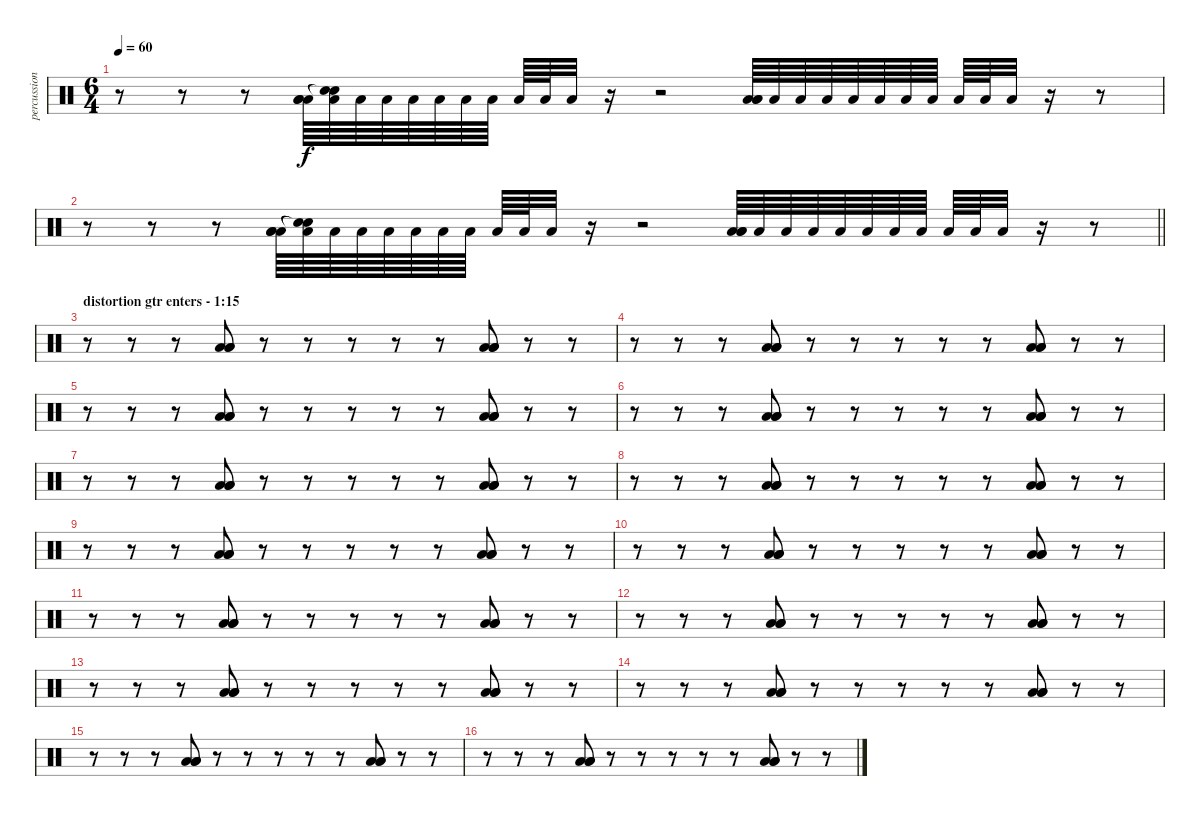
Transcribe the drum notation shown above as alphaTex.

\track ("percussion" "percussion") {instrument percussion}
\staff {score}
\articulation defaults
\ts (6 4)
\tempo 60
\clef neutral
\ks c
r.8{dy f} r.8 r.8 ("Low Floor Tom (hit)" "Low Floor Tom (hit)" "Low Floor Tom (hit)").64{volume 0} ("Snare (hit)"{t} "Snare (hit)"{t} "Low Floor Tom (hit)").64 "Low Floor Tom (hit)".64 "Low Floor Tom (hit)".64 "Low Floor Tom (hit)".64 "Low Floor Tom (hit)".64 "Low Floor Tom (hit)".64 "Low Floor Tom (hit)".64 "Low Floor Tom (hit)".64 "Low Floor Tom (hit)".64 "Low Floor Tom (hit)".32 r.16 r.2{volume 11} ("Low Floor Tom (hit)" "Low Floor Tom (hit)" "Low Floor Tom (hit)").64{volume 0} "Low Floor Tom (hit)".64 "Low Floor Tom (hit)".64 "Low Floor Tom (hit)".64 "Low Floor Tom (hit)".64 "Low Floor Tom (hit)".64 "Low Floor Tom (hit)".64 "Low Floor Tom (hit)".64 "Low Floor Tom (hit)".64 "Low Floor Tom (hit)".64 "Low Floor Tom (hit)".32 r.16 r.8{volume 11} |
\barLineRight lightlight
r.8 r.8 r.8 ("Low Floor Tom (hit)" "Low Floor Tom (hit)" "Low Floor Tom (hit)").64{volume 0} ("Snare (hit)"{t} "Snare (hit)"{t} "Low Floor Tom (hit)").64 "Low Floor Tom (hit)".64 "Low Floor Tom (hit)".64 "Low Floor Tom (hit)".64 "Low Floor Tom (hit)".64 "Low Floor Tom (hit)".64 "Low Floor Tom (hit)".64 "Low Floor Tom (hit)".64 "Low Floor Tom (hit)".64 "Low Floor Tom (hit)".32 r.16 r.2{volume 11} ("Low Floor Tom (hit)" "Low Floor Tom (hit)" "Low Floor Tom (hit)").64{volume 0} "Low Floor Tom (hit)".64 "Low Floor Tom (hit)".64 "Low Floor Tom (hit)".64 "Low Floor Tom (hit)".64 "Low Floor Tom (hit)".64 "Low Floor Tom (hit)".64 "Low Floor Tom (hit)".64 "Low Floor Tom (hit)".64 "Low Floor Tom (hit)".64 "Low Floor Tom (hit)".32 r.16 r.8{volume 11} |
\section ("" "distortion gtr enters - 1:15")
r.8 r.8 r.8 ("Low Floor Tom (hit)" "Low Floor Tom (hit)" "Low Floor Tom (hit)").8 r.8 r.8 r.8 r.8 r.8 ("Low Floor Tom (hit)" "Low Floor Tom (hit)" "Low Floor Tom (hit)").8 r.8 r.8 |
r.8 r.8 r.8 ("Low Floor Tom (hit)" "Low Floor Tom (hit)" "Low Floor Tom (hit)").8 r.8 r.8 r.8 r.8 r.8 ("Low Floor Tom (hit)" "Low Floor Tom (hit)" "Low Floor Tom (hit)").8 r.8 r.8 |
r.8 r.8 r.8 ("Low Floor Tom (hit)" "Low Floor Tom (hit)" "Low Floor Tom (hit)").8 r.8 r.8 r.8 r.8 r.8 ("Low Floor Tom (hit)" "Low Floor Tom (hit)" "Low Floor Tom (hit)").8 r.8 r.8 |
r.8 r.8 r.8 ("Low Floor Tom (hit)" "Low Floor Tom (hit)" "Low Floor Tom (hit)").8 r.8 r.8 r.8 r.8 r.8 ("Low Floor Tom (hit)" "Low Floor Tom (hit)" "Low Floor Tom (hit)").8 r.8 r.8 |
r.8 r.8 r.8 ("Low Floor Tom (hit)" "Low Floor Tom (hit)" "Low Floor Tom (hit)").8 r.8 r.8 r.8 r.8 r.8 ("Low Floor Tom (hit)" "Low Floor Tom (hit)" "Low Floor Tom (hit)").8 r.8 r.8 |
r.8 r.8 r.8 ("Low Floor Tom (hit)" "Low Floor Tom (hit)" "Low Floor Tom (hit)").8 r.8 r.8 r.8 r.8 r.8 ("Low Floor Tom (hit)" "Low Floor Tom (hit)" "Low Floor Tom (hit)").8 r.8 r.8 |
r.8 r.8 r.8 ("Low Floor Tom (hit)" "Low Floor Tom (hit)" "Low Floor Tom (hit)").8 r.8 r.8 r.8 r.8 r.8 ("Low Floor Tom (hit)" "Low Floor Tom (hit)" "Low Floor Tom (hit)").8 r.8 r.8 |
r.8 r.8 r.8 ("Low Floor Tom (hit)" "Low Floor Tom (hit)" "Low Floor Tom (hit)").8 r.8 r.8 r.8 r.8 r.8 ("Low Floor Tom (hit)" "Low Floor Tom (hit)" "Low Floor Tom (hit)").8 r.8 r.8 |
r.8 r.8 r.8 ("Low Floor Tom (hit)" "Low Floor Tom (hit)" "Low Floor Tom (hit)").8 r.8 r.8 r.8 r.8 r.8 ("Low Floor Tom (hit)" "Low Floor Tom (hit)" "Low Floor Tom (hit)").8 r.8 r.8 |
r.8 r.8 r.8 ("Low Floor Tom (hit)" "Low Floor Tom (hit)" "Low Floor Tom (hit)").8 r.8 r.8 r.8 r.8 r.8 ("Low Floor Tom (hit)" "Low Floor Tom (hit)" "Low Floor Tom (hit)").8 r.8 r.8 |
r.8 r.8 r.8 ("Low Floor Tom (hit)" "Low Floor Tom (hit)" "Low Floor Tom (hit)").8 r.8 r.8 r.8 r.8 r.8 ("Low Floor Tom (hit)" "Low Floor Tom (hit)" "Low Floor Tom (hit)").8 r.8 r.8 |
r.8 r.8 r.8 ("Low Floor Tom (hit)" "Low Floor Tom (hit)" "Low Floor Tom (hit)").8 r.8 r.8 r.8 r.8 r.8 ("Low Floor Tom (hit)" "Low Floor Tom (hit)" "Low Floor Tom (hit)").8 r.8 r.8 |
r.8 r.8 r.8 ("Low Floor Tom (hit)" "Low Floor Tom (hit)" "Low Floor Tom (hit)").8 r.8 r.8 r.8 r.8 r.8 ("Low Floor Tom (hit)" "Low Floor Tom (hit)" "Low Floor Tom (hit)").8 r.8 r.8 |
r.8 r.8 r.8 ("Low Floor Tom (hit)" "Low Floor Tom (hit)" "Low Floor Tom (hit)").8 r.8 r.8 r.8 r.8 r.8 ("Low Floor Tom (hit)" "Low Floor Tom (hit)" "Low Floor Tom (hit)").8 r.8 r.8
